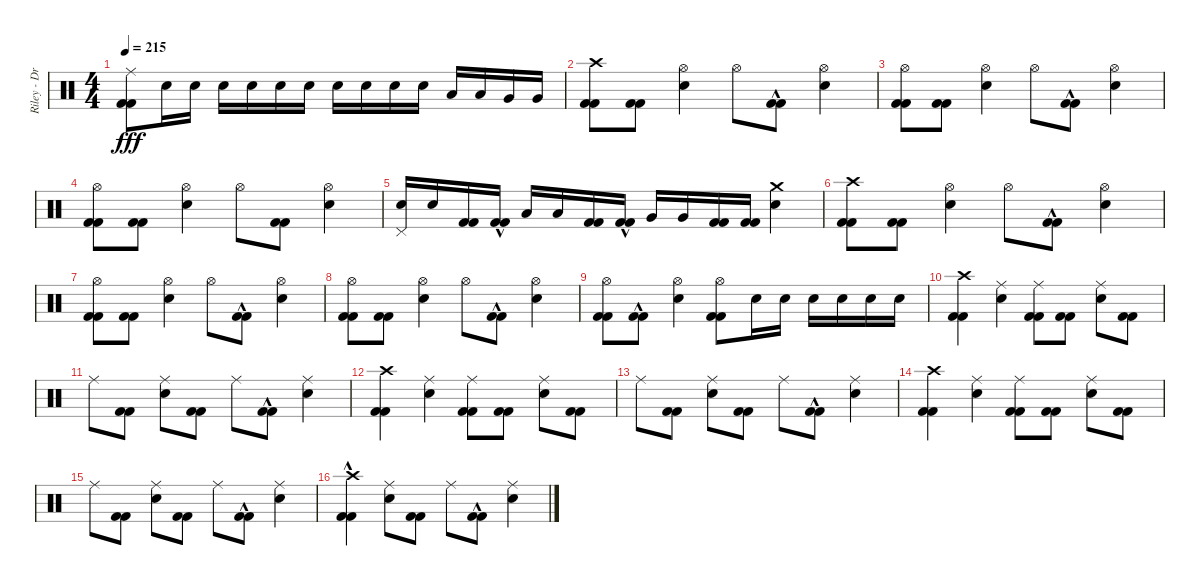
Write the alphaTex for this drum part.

\track ("Riley - Drums" "Riley - Dr") {instrument percussion}
\staff {score}
\articulation defaults
\ts (4 4)
\tempo 215
\clef neutral
\ks c
("Kick (hit) 2" "Kick (hit) 2" "Ride (middle)").8{dy fff} "Electric Snare (hit)".16 "Electric Snare (hit)".16 "Electric Snare (hit)".16 "Electric Snare (hit)".16 "Electric Snare (hit)".16 "Electric Snare (hit)".16 "Electric Snare (hit)".16 "Electric Snare (hit)".16 "Electric Snare (hit)".16 "Electric Snare (hit)".16 "Low Tom (hit)".16 "Low Tom (hit)".16 "Very Low Tom (hit)".16 "Very Low Tom (hit)".16 |
("Kick (hit) 2" "Kick (hit) 2" "Crash high (hit)").8 ("Kick (hit) 2" "Kick (hit) 2").8 ("Electric Snare (hit)" "Hi-Hat (open)").4 "Hi-Hat (open)".8 ("Kick (hit) 2"{hac} "Kick (hit) 2"{hac}).8 ("Electric Snare (hit)" "Hi-Hat (open)").4 |
("Kick (hit) 2" "Kick (hit) 2" "Hi-Hat (open)").8 ("Kick (hit) 2" "Kick (hit) 2").8 ("Electric Snare (hit)" "Hi-Hat (open)").4 "Hi-Hat (open)".8 ("Kick (hit) 2"{hac} "Kick (hit) 2"{hac}).8 ("Electric Snare (hit)" "Hi-Hat (open)").4 |
("Kick (hit) 2" "Kick (hit) 2" "Hi-Hat (open)").8 ("Kick (hit) 2" "Kick (hit) 2").8 ("Electric Snare (hit)" "Hi-Hat (open)").4 "Hi-Hat (open)".8 ("Kick (hit) 2" "Kick (hit) 2").8 ("Electric Snare (hit)" "Hi-Hat (open)").4 |
("Electric Snare (hit)" "Pedal Hi-Hat (hit)").16 "Electric Snare (hit)".16 ("Kick (hit) 2" "Kick (hit) 2").16 ("Kick (hit) 2"{hac} "Kick (hit) 2"{hac}).16 "Low Tom (hit)".16 "Low Tom (hit)".16 ("Kick (hit) 2" "Kick (hit) 2").16 ("Kick (hit) 2"{hac} "Kick (hit) 2"{hac}).16 "Very Low Tom (hit)".16 "Very Low Tom (hit)".16 ("Kick (hit) 2" "Kick (hit) 2").16 ("Kick (hit) 2" "Kick (hit) 2").16 ("Electric Snare (hit)" "Crash medium (hit)").4 |
("Kick (hit) 2" "Kick (hit) 2" "Crash high (hit)").8 ("Kick (hit) 2" "Kick (hit) 2").8 ("Electric Snare (hit)" "Hi-Hat (open)").4 "Hi-Hat (open)".8 ("Kick (hit) 2"{hac} "Kick (hit) 2"{hac}).8 ("Electric Snare (hit)" "Hi-Hat (open)").4 |
("Kick (hit) 2" "Kick (hit) 2" "Hi-Hat (open)").8 ("Kick (hit) 2" "Kick (hit) 2").8 ("Electric Snare (hit)" "Hi-Hat (open)").4 "Hi-Hat (open)".8 ("Kick (hit) 2"{hac} "Kick (hit) 2"{hac}).8 ("Electric Snare (hit)" "Hi-Hat (open)").4 |
("Kick (hit) 2" "Kick (hit) 2" "Hi-Hat (open)").8 ("Kick (hit) 2" "Kick (hit) 2").8 ("Electric Snare (hit)" "Hi-Hat (open)").4 "Hi-Hat (open)".8 ("Kick (hit) 2"{hac} "Kick (hit) 2"{hac}).8 ("Electric Snare (hit)" "Hi-Hat (open)").4 |
("Kick (hit) 2" "Kick (hit) 2" "Hi-Hat (open)").8 ("Kick (hit) 2"{hac} "Kick (hit) 2"{hac}).8 ("Electric Snare (hit)" "Hi-Hat (open)").4 ("Kick (hit) 2" "Kick (hit) 2" "Hi-Hat (open)").8 "Electric Snare (hit)".16 "Electric Snare (hit)".16 "Electric Snare (hit)".16 "Electric Snare (hit)".16 "Electric Snare (hit)".16 "Electric Snare (hit)".16 |
("Kick (hit) 2" "Kick (hit) 2" "Crash high (hit)").4 ("Electric Snare (hit)" "Ride (middle)").4 ("Kick (hit) 2" "Kick (hit) 2" "Ride (middle)").8 ("Kick (hit) 2" "Kick (hit) 2").8 ("Electric Snare (hit)" "Ride (middle)").8 ("Kick (hit) 2" "Kick (hit) 2").8 |
"Ride (middle)".8 ("Kick (hit) 2" "Kick (hit) 2").8 ("Electric Snare (hit)" "Ride (middle)").8 ("Kick (hit) 2" "Kick (hit) 2").8 "Ride (middle)".8 ("Kick (hit) 2"{hac} "Kick (hit) 2"{hac}).8 ("Electric Snare (hit)" "Ride (middle)").4 |
("Kick (hit) 2" "Kick (hit) 2" "Crash high (hit)").4 ("Electric Snare (hit)" "Ride (middle)").4 ("Kick (hit) 2" "Kick (hit) 2" "Ride (middle)").8 ("Kick (hit) 2" "Kick (hit) 2").8 ("Electric Snare (hit)" "Ride (middle)").8 ("Kick (hit) 2" "Kick (hit) 2").8 |
"Ride (middle)".8 ("Kick (hit) 2" "Kick (hit) 2").8 ("Electric Snare (hit)" "Ride (middle)").8 ("Kick (hit) 2" "Kick (hit) 2").8 "Ride (middle)".8 ("Kick (hit) 2"{hac} "Kick (hit) 2"{hac}).8 ("Electric Snare (hit)" "Ride (middle)").4 |
("Kick (hit) 2" "Kick (hit) 2" "Crash high (hit)").4 ("Electric Snare (hit)" "Ride (middle)").4 ("Kick (hit) 2" "Kick (hit) 2" "Ride (middle)").8 ("Kick (hit) 2" "Kick (hit) 2").8 ("Electric Snare (hit)" "Ride (middle)").8 ("Kick (hit) 2" "Kick (hit) 2").8 |
"Ride (middle)".8 ("Kick (hit) 2" "Kick (hit) 2").8 ("Electric Snare (hit)" "Ride (middle)").8 ("Kick (hit) 2" "Kick (hit) 2").8 "Ride (middle)".8 ("Kick (hit) 2"{hac} "Kick (hit) 2"{hac}).8 ("Electric Snare (hit)" "Ride (middle)").4 |
("Kick (hit) 2"{hac} "Kick (hit) 2"{hac} "Crash high (hit)").4 ("Electric Snare (hit)" "Ride (middle)").8 ("Kick (hit) 2" "Kick (hit) 2").8 "Ride (middle)".8 ("Kick (hit) 2"{hac} "Kick (hit) 2"{hac}).8 ("Electric Snare (hit)" "Ride (middle)").4
